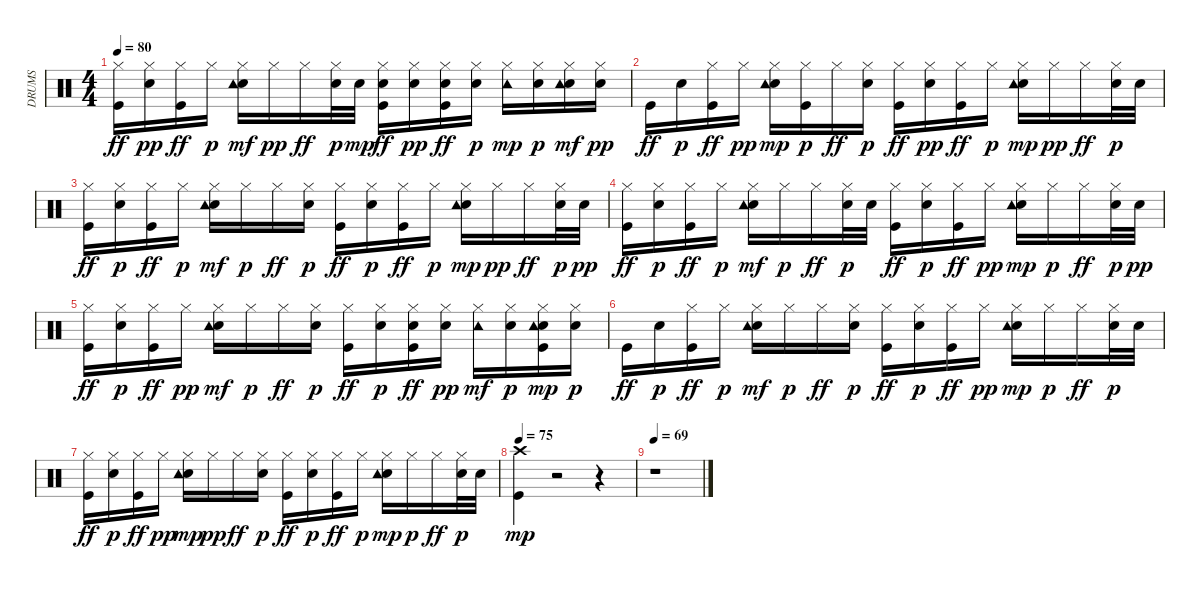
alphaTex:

\track ("DRUMS" "DRUMS") {instrument percussion}
\staff {score}
\articulation defaults
\ts (4 4)
\tempo 80
\clef neutral
\ks c
("Kick (hit)" "Hi-Hat (closed)").16{dy ff} ("Snare (hit) 2" "Hi-Hat (closed)").16{dy pp} ("Kick (hit)" "Hi-Hat (closed)").16{dy ff} "Hi-Hat (closed)".16{dy p} ("Snare (hit) 2" "Hi-Hat (closed)" "Tambourine (hit)").16{dy mf} "Hi-Hat (closed)".16{dy pp} "Hi-Hat (closed)".16{dy ff} ("Hi-Hat (closed)" "Snare (hit) 2").32{dy p} "Snare (hit) 2".32{dy mp} ("Kick (hit)" "Snare (hit) 2" "Hi-Hat (closed)").16{dy ff} ("Snare (hit) 2" "Hi-Hat (closed)").16{dy pp} ("Kick (hit)" "Snare (hit) 2" "Hi-Hat (closed)").16{dy ff} ("Snare (hit) 2" "Hi-Hat (closed)").16{dy p} ("Hi-Hat (closed)" "Tambourine (hit)").16{dy mp} ("Snare (hit) 2" "Hi-Hat (closed)").16{dy p} ("Snare (hit) 2" "Hi-Hat (closed)" "Tambourine (hit)").16{dy mf} ("Snare (hit) 2" "Hi-Hat (closed)").16{dy pp} |
"Kick (hit)".16{dy ff} "Snare (hit) 2".16{dy p} ("Kick (hit)" "Hi-Hat (closed)").16{dy ff} "Hi-Hat (closed)".16{dy pp} ("Snare (hit) 2" "Hi-Hat (closed)" "Tambourine (hit)").16{dy mp} ("Kick (hit)" "Hi-Hat (closed)").16{dy p} "Hi-Hat (closed)".16{dy ff} ("Snare (hit) 2" "Hi-Hat (closed)").16{dy p} ("Kick (hit)" "Hi-Hat (closed)").16{dy ff} ("Snare (hit) 2" "Hi-Hat (closed)").16{dy pp} ("Kick (hit)" "Hi-Hat (closed)").16{dy ff} "Hi-Hat (closed)".16{dy p} ("Snare (hit) 2" "Hi-Hat (closed)" "Tambourine (hit)").16{dy mp} "Hi-Hat (closed)".16{dy pp} "Hi-Hat (closed)".16{dy ff} ("Hi-Hat (closed)" "Snare (hit) 2").32{dy p} "Snare (hit) 2".32 |
("Kick (hit)" "Hi-Hat (closed)").16{dy ff} ("Snare (hit) 2" "Hi-Hat (closed)").16{dy p} ("Kick (hit)" "Hi-Hat (closed)").16{dy ff} "Hi-Hat (closed)".16{dy p} ("Snare (hit) 2" "Hi-Hat (closed)" "Tambourine (hit)").16{dy mf} "Hi-Hat (closed)".16{dy p} "Hi-Hat (closed)".16{dy ff} ("Snare (hit) 2" "Hi-Hat (closed)").16{dy p} ("Kick (hit)" "Hi-Hat (closed)").16{dy ff} ("Snare (hit) 2" "Hi-Hat (closed)").16{dy p} ("Kick (hit)" "Hi-Hat (closed)").16{dy ff} "Hi-Hat (closed)".16{dy p} ("Snare (hit) 2" "Hi-Hat (closed)" "Tambourine (hit)").16{dy mp} "Hi-Hat (closed)".16{dy pp} "Hi-Hat (closed)".16{dy ff} ("Hi-Hat (closed)" "Snare (hit) 2").32{dy p} "Snare (hit) 2".32{dy pp} |
("Kick (hit)" "Hi-Hat (closed)").16{dy ff} ("Snare (hit) 2" "Hi-Hat (closed)").16{dy p} ("Kick (hit)" "Hi-Hat (closed)").16{dy ff} "Hi-Hat (closed)".16{dy p} ("Snare (hit) 2" "Hi-Hat (closed)" "Tambourine (hit)").16{dy mf} "Hi-Hat (closed)".16{dy p} "Hi-Hat (closed)".16{dy ff} ("Hi-Hat (closed)" "Snare (hit) 2").32{dy p} "Snare (hit) 2".32 ("Kick (hit)" "Hi-Hat (closed)").16{dy ff} ("Snare (hit) 2" "Hi-Hat (closed)").16{dy p} ("Kick (hit)" "Hi-Hat (closed)").16{dy ff} "Hi-Hat (closed)".16{dy pp} ("Snare (hit) 2" "Hi-Hat (closed)" "Tambourine (hit)").16{dy mp} "Hi-Hat (closed)".16{dy p} "Hi-Hat (closed)".16{dy ff} ("Hi-Hat (closed)" "Snare (hit) 2").32{dy p} "Snare (hit) 2".32{dy pp} |
("Kick (hit)" "Hi-Hat (closed)").16{dy ff} ("Snare (hit) 2" "Hi-Hat (closed)").16{dy p} ("Kick (hit)" "Hi-Hat (closed)").16{dy ff} "Hi-Hat (closed)".16{dy pp} ("Snare (hit) 2" "Hi-Hat (closed)" "Tambourine (hit)").16{dy mf} "Hi-Hat (closed)".16{dy p} "Hi-Hat (closed)".16{dy ff} ("Snare (hit) 2" "Hi-Hat (closed)").16{dy p} ("Kick (hit)" "Hi-Hat (closed)").16{dy ff} ("Snare (hit) 2" "Hi-Hat (closed)").16{dy p} ("Kick (hit)" "Snare (hit) 2" "Hi-Hat (closed)").16{dy ff} ("Snare (hit) 2" "Hi-Hat (closed)").16{dy pp} ("Hi-Hat (closed)" "Tambourine (hit)").16{dy mf} ("Snare (hit) 2" "Hi-Hat (closed)").16{dy p} ("Kick (hit)" "Snare (hit) 2" "Hi-Hat (closed)" "Tambourine (hit)").16{dy mp} ("Snare (hit) 2" "Hi-Hat (closed)").16{dy p} |
"Kick (hit)".16{dy ff} "Snare (hit) 2".16{dy p} ("Kick (hit)" "Hi-Hat (closed)").16{dy ff} "Hi-Hat (closed)".16{dy p} ("Snare (hit) 2" "Hi-Hat (closed)" "Tambourine (hit)").16{dy mf} "Hi-Hat (closed)".16{dy p} "Hi-Hat (closed)".16{dy ff} ("Snare (hit) 2" "Hi-Hat (closed)").16{dy p} ("Kick (hit)" "Hi-Hat (closed)").16{dy ff} ("Snare (hit) 2" "Hi-Hat (closed)").16{dy p} ("Kick (hit)" "Hi-Hat (closed)").16{dy ff} "Hi-Hat (closed)".16{dy pp} ("Snare (hit) 2" "Hi-Hat (closed)" "Tambourine (hit)").16{dy mp} "Hi-Hat (closed)".16{dy p} "Hi-Hat (closed)".16{dy ff} ("Hi-Hat (closed)" "Snare (hit) 2").32{dy p} "Snare (hit) 2".32 |
("Kick (hit)" "Hi-Hat (closed)").16{dy ff} ("Snare (hit) 2" "Hi-Hat (closed)").16{dy p} ("Kick (hit)" "Hi-Hat (closed)").16{dy ff} "Hi-Hat (closed)".16{dy pp} ("Snare (hit) 2" "Hi-Hat (closed)" "Tambourine (hit)").16{dy mp} "Hi-Hat (closed)".16{dy pp} "Hi-Hat (closed)".16{dy ff} ("Snare (hit) 2" "Hi-Hat (closed)").16{dy p} ("Kick (hit)" "Hi-Hat (closed)").16{dy ff} ("Snare (hit) 2" "Hi-Hat (closed)").16{dy p} ("Kick (hit)" "Hi-Hat (closed)").16{dy ff} "Hi-Hat (closed)".16{dy p} ("Snare (hit) 2" "Hi-Hat (closed)" "Tambourine (hit)").16{dy mp} "Hi-Hat (closed)".16{dy p} "Hi-Hat (closed)".16{dy ff} ("Hi-Hat (closed)" "Snare (hit) 2").32{dy p} "Snare (hit) 2".32 |
\tempo 75
("Kick (hit)" "Crash high (hit)").4{dy mp} r.2 r.4 |
\tempo 69
r.1
